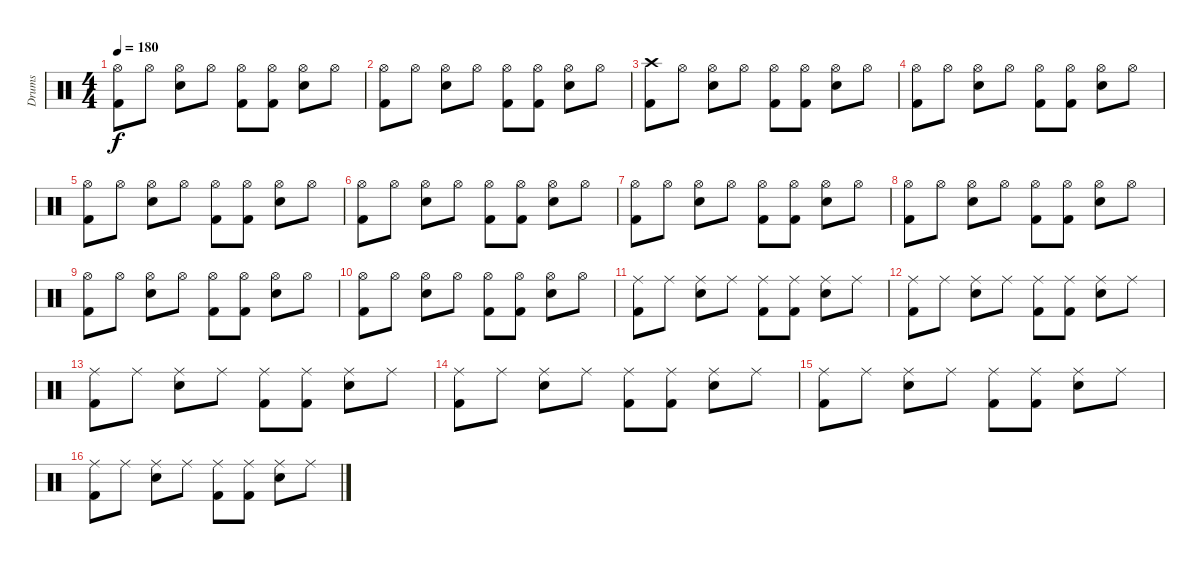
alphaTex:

\track ("Drums" "Drums") {instrument percussion}
\staff {score}
\articulation defaults
\ts (4 4)
\tempo 180
\clef neutral
\ks c
("Hi-Hat (open)" "Kick (hit) 2").8{dy f} "Hi-Hat (open)".8 ("Hi-Hat (open)" "Snare (hit) 2").8 "Hi-Hat (open)".8 ("Hi-Hat (open)" "Kick (hit) 2").8 ("Hi-Hat (open)" "Kick (hit) 2").8 ("Hi-Hat (open)" "Snare (hit) 2").8 "Hi-Hat (open)".8 |
("Hi-Hat (open)" "Kick (hit) 2").8 "Hi-Hat (open)".8 ("Hi-Hat (open)" "Snare (hit) 2").8 "Hi-Hat (open)".8 ("Hi-Hat (open)" "Kick (hit) 2").8 ("Hi-Hat (open)" "Kick (hit) 2").8 ("Hi-Hat (open)" "Snare (hit) 2").8 "Hi-Hat (open)".8 |
("Crash high (hit)" "Kick (hit) 2").8 "Hi-Hat (open)".8 ("Hi-Hat (open)" "Snare (hit) 2").8 "Hi-Hat (open)".8 ("Hi-Hat (open)" "Kick (hit) 2").8 ("Hi-Hat (open)" "Kick (hit) 2").8 ("Hi-Hat (open)" "Snare (hit) 2").8 "Hi-Hat (open)".8 |
("Hi-Hat (open)" "Kick (hit) 2").8 "Hi-Hat (open)".8 ("Hi-Hat (open)" "Snare (hit) 2").8 "Hi-Hat (open)".8 ("Hi-Hat (open)" "Kick (hit) 2").8 ("Hi-Hat (open)" "Kick (hit) 2").8 ("Hi-Hat (open)" "Snare (hit) 2").8 "Hi-Hat (open)".8 |
("Hi-Hat (open)" "Kick (hit) 2").8 "Hi-Hat (open)".8 ("Hi-Hat (open)" "Snare (hit) 2").8 "Hi-Hat (open)".8 ("Hi-Hat (open)" "Kick (hit) 2").8 ("Hi-Hat (open)" "Kick (hit) 2").8 ("Hi-Hat (open)" "Snare (hit) 2").8 "Hi-Hat (open)".8 |
("Hi-Hat (open)" "Kick (hit) 2").8 "Hi-Hat (open)".8 ("Hi-Hat (open)" "Snare (hit) 2").8 "Hi-Hat (open)".8 ("Hi-Hat (open)" "Kick (hit) 2").8 ("Hi-Hat (open)" "Kick (hit) 2").8 ("Hi-Hat (open)" "Snare (hit) 2").8 "Hi-Hat (open)".8 |
("Hi-Hat (open)" "Kick (hit) 2").8 "Hi-Hat (open)".8 ("Hi-Hat (open)" "Snare (hit) 2").8 "Hi-Hat (open)".8 ("Hi-Hat (open)" "Kick (hit) 2").8 ("Hi-Hat (open)" "Kick (hit) 2").8 ("Hi-Hat (open)" "Snare (hit) 2").8 "Hi-Hat (open)".8 |
("Hi-Hat (open)" "Kick (hit) 2").8 "Hi-Hat (open)".8 ("Hi-Hat (open)" "Snare (hit) 2").8 "Hi-Hat (open)".8 ("Hi-Hat (open)" "Kick (hit) 2").8 ("Hi-Hat (open)" "Kick (hit) 2").8 ("Hi-Hat (open)" "Snare (hit) 2").8 "Hi-Hat (open)".8 |
("Hi-Hat (open)" "Kick (hit) 2").8 "Hi-Hat (open)".8 ("Hi-Hat (open)" "Snare (hit) 2").8 "Hi-Hat (open)".8 ("Hi-Hat (open)" "Kick (hit) 2").8 ("Hi-Hat (open)" "Kick (hit) 2").8 ("Hi-Hat (open)" "Snare (hit) 2").8 "Hi-Hat (open)".8 |
("Hi-Hat (open)" "Kick (hit) 2").8 "Hi-Hat (open)".8 ("Hi-Hat (open)" "Snare (hit) 2").8 "Hi-Hat (open)".8 ("Hi-Hat (open)" "Kick (hit) 2").8 ("Hi-Hat (open)" "Kick (hit) 2").8 ("Hi-Hat (open)" "Snare (hit) 2").8 "Hi-Hat (open)".8 |
("Ride (middle)" "Kick (hit) 2").8 "Ride (middle)".8 ("Ride (middle)" "Snare (hit) 2").8 "Ride (middle)".8 ("Ride (middle)" "Kick (hit) 2").8 ("Ride (middle)" "Kick (hit) 2").8 ("Ride (middle)" "Snare (hit) 2").8 "Ride (middle)".8 |
("Ride (middle)" "Kick (hit) 2").8 "Ride (middle)".8 ("Ride (middle)" "Snare (hit) 2").8 "Ride (middle)".8 ("Ride (middle)" "Kick (hit) 2").8 ("Ride (middle)" "Kick (hit) 2").8 ("Ride (middle)" "Snare (hit) 2").8 "Ride (middle)".8 |
("Ride (middle)" "Kick (hit) 2").8 "Ride (middle)".8 ("Ride (middle)" "Snare (hit) 2").8 "Ride (middle)".8 ("Ride (middle)" "Kick (hit) 2").8 ("Ride (middle)" "Kick (hit) 2").8 ("Ride (middle)" "Snare (hit) 2").8 "Ride (middle)".8 |
("Ride (middle)" "Kick (hit) 2").8 "Ride (middle)".8 ("Ride (middle)" "Snare (hit) 2").8 "Ride (middle)".8 ("Ride (middle)" "Kick (hit) 2").8 ("Ride (middle)" "Kick (hit) 2").8 ("Ride (middle)" "Snare (hit) 2").8 "Ride (middle)".8 |
("Ride (middle)" "Kick (hit) 2").8 "Ride (middle)".8 ("Ride (middle)" "Snare (hit) 2").8 "Ride (middle)".8 ("Ride (middle)" "Kick (hit) 2").8 ("Ride (middle)" "Kick (hit) 2").8 ("Ride (middle)" "Snare (hit) 2").8 "Ride (middle)".8 |
("Ride (middle)" "Kick (hit) 2").8 "Ride (middle)".8 ("Ride (middle)" "Snare (hit) 2").8 "Ride (middle)".8 ("Ride (middle)" "Kick (hit) 2").8 ("Ride (middle)" "Kick (hit) 2").8 ("Ride (middle)" "Snare (hit) 2").8 "Ride (middle)".8
